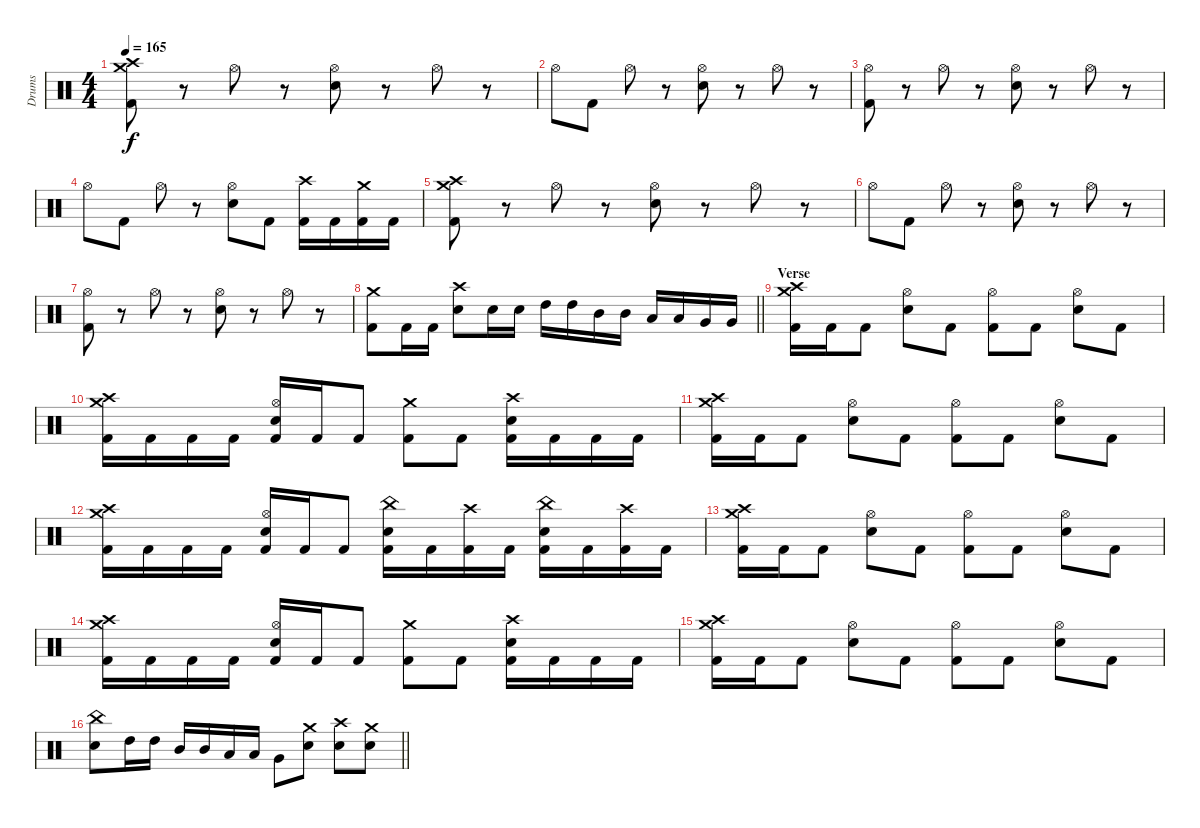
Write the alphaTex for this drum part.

\track ("Drums" "Drums") {instrument percussion}
\staff {score}
\articulation defaults
\ts (4 4)
\tempo 165
\clef neutral
\ks c
("Crash medium (hit)" "Crash high (hit)" "Kick (hit) 2").8{dy f} r.8 "Hi-Hat (open)".8 r.8 ("Hi-Hat (open)" "Electric Snare (hit)").8 r.8 "Hi-Hat (open)".8 r.8 |
"Hi-Hat (open)".8 "Kick (hit) 2".8 "Hi-Hat (open)".8 r.8 ("Hi-Hat (open)" "Electric Snare (hit)").8 r.8 "Hi-Hat (open)".8 r.8 |
("Hi-Hat (open)" "Kick (hit) 2").8 r.8 "Hi-Hat (open)".8 r.8 ("Hi-Hat (open)" "Electric Snare (hit)").8 r.8 "Hi-Hat (open)".8 r.8 |
"Hi-Hat (open)".8 "Kick (hit) 2".8 "Hi-Hat (open)".8 r.8 ("Hi-Hat (open)" "Electric Snare (hit)").8 "Kick (hit) 2".8 ("Crash high (hit)" "Kick (hit) 2").16 "Kick (hit) 2".16 ("Crash medium (hit)" "Kick (hit) 2").16 "Kick (hit) 2".16 |
("Crash medium (hit)" "Crash high (hit)" "Kick (hit) 2").8 r.8 "Hi-Hat (open)".8 r.8 ("Hi-Hat (open)" "Electric Snare (hit)").8 r.8 "Hi-Hat (open)".8 r.8 |
"Hi-Hat (open)".8 "Kick (hit) 2".8 "Hi-Hat (open)".8 r.8 ("Hi-Hat (open)" "Electric Snare (hit)").8 r.8 "Hi-Hat (open)".8 r.8 |
("Hi-Hat (open)" "Kick (hit) 2").8 r.8 "Hi-Hat (open)".8 r.8 ("Hi-Hat (open)" "Electric Snare (hit)").8 r.8 "Hi-Hat (open)".8 r.8 |
\barLineRight lightlight
("Crash medium (hit)" "Kick (hit) 2").8 "Kick (hit) 2".16 "Kick (hit) 2".16 ("Crash high (hit)" "Electric Snare (hit)").8 "Electric Snare (hit)".16 "Electric Snare (hit)".16 "High Tom (hit)".16 "High Tom (hit)".16 "Mid Tom (hit)".16 "Mid Tom (hit)".16 "Low Tom (hit)".16 "Low Tom (hit)".16 "Very Low Tom (hit)".16 "Very Low Tom (hit)".16 |
\section ("" "Verse")
("Crash medium (hit)" "Crash high (hit)" "Kick (hit) 2").16 "Kick (hit) 2".16 "Kick (hit) 2".8 ("Hi-Hat (open)" "Electric Snare (hit)").8 "Kick (hit) 2".8 ("Hi-Hat (open)" "Kick (hit) 2").8 "Kick (hit) 2".8 ("Hi-Hat (open)" "Electric Snare (hit)").8 "Kick (hit) 2".8 |
("Crash medium (hit)" "Crash high (hit)" "Kick (hit) 2").16 "Kick (hit) 2".16 "Kick (hit) 2".16 "Kick (hit) 2".16 ("Hi-Hat (open)" "Electric Snare (hit)" "Kick (hit) 2").16 "Kick (hit) 2".16 "Kick (hit) 2".8 ("Crash medium (hit)" "Kick (hit) 2").8 "Kick (hit) 2".8 ("Crash high (hit)" "Electric Snare (hit)" "Kick (hit) 2").16 "Kick (hit) 2".16 "Kick (hit) 2".16 "Kick (hit) 2".16 |
("Crash medium (hit)" "Crash high (hit)" "Kick (hit) 2").16 "Kick (hit) 2".16 "Kick (hit) 2".8 ("Hi-Hat (open)" "Electric Snare (hit)").8 "Kick (hit) 2".8 ("Hi-Hat (open)" "Kick (hit) 2").8 "Kick (hit) 2".8 ("Hi-Hat (open)" "Electric Snare (hit)").8 "Kick (hit) 2".8 |
("Crash medium (hit)" "Crash high (hit)" "Kick (hit) 2").16 "Kick (hit) 2".16 "Kick (hit) 2".16 "Kick (hit) 2".16 ("Hi-Hat (open)" "Electric Snare (hit)" "Kick (hit) 2").16 "Kick (hit) 2".16 "Kick (hit) 2".8 ("China (hit)" "Electric Snare (hit)" "Kick (hit) 2").16 "Kick (hit) 2".16 ("Crash high (hit)" "Kick (hit) 2").16 "Kick (hit) 2".16 ("China (hit)" "Electric Snare (hit)" "Kick (hit) 2").16 "Kick (hit) 2".16 ("Crash high (hit)" "Kick (hit) 2").16 "Kick (hit) 2".16 |
("Crash medium (hit)" "Crash high (hit)" "Kick (hit) 2").16 "Kick (hit) 2".16 "Kick (hit) 2".8 ("Hi-Hat (open)" "Electric Snare (hit)").8 "Kick (hit) 2".8 ("Hi-Hat (open)" "Kick (hit) 2").8 "Kick (hit) 2".8 ("Hi-Hat (open)" "Electric Snare (hit)").8 "Kick (hit) 2".8 |
("Crash medium (hit)" "Crash high (hit)" "Kick (hit) 2").16 "Kick (hit) 2".16 "Kick (hit) 2".16 "Kick (hit) 2".16 ("Hi-Hat (open)" "Electric Snare (hit)" "Kick (hit) 2").16 "Kick (hit) 2".16 "Kick (hit) 2".8 ("Crash medium (hit)" "Kick (hit) 2").8 "Kick (hit) 2".8 ("Crash high (hit)" "Electric Snare (hit)" "Kick (hit) 2").16 "Kick (hit) 2".16 "Kick (hit) 2".16 "Kick (hit) 2".16 |
("Crash medium (hit)" "Crash high (hit)" "Kick (hit) 2").16 "Kick (hit) 2".16 "Kick (hit) 2".8 ("Hi-Hat (open)" "Electric Snare (hit)").8 "Kick (hit) 2".8 ("Hi-Hat (open)" "Kick (hit) 2").8 "Kick (hit) 2".8 ("Hi-Hat (open)" "Electric Snare (hit)").8 "Kick (hit) 2".8 |
\barLineRight lightlight
("China (hit)" "Electric Snare (hit)").8 "High Tom (hit)".16 "High Tom (hit)".16 "Mid Tom (hit)".16 "Mid Tom (hit)".16 "Low Tom (hit)".16 "Low Tom (hit)".16 "Very Low Tom (hit)".8 ("Crash medium (hit)" "Electric Snare (hit)").8 ("Crash high (hit)" "Electric Snare (hit)").8 ("Crash medium (hit)" "Electric Snare (hit)").8
